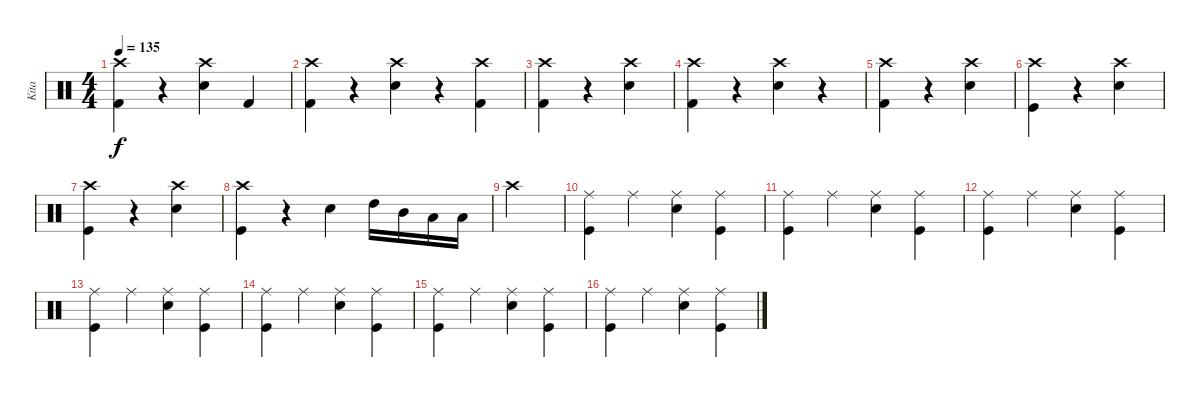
\track ("Kita" "Kita") {instrument percussion}
\staff {score}
\articulation defaults
\ts (4 4)
\tempo 135
\clef neutral
\ks c
("Kick (hit) 2" "Crash high (hit)").4{dy f} r.4 ("Snare (hit) 2" "Crash high (hit)").4 "Kick (hit) 2".4 |
("Kick (hit) 2" "Crash high (hit)").4 r.4 ("Snare (hit) 2" "Crash high (hit)").4 r.4 ("Kick (hit) 2" "Crash high (hit)").4 |
("Kick (hit) 2" "Crash high (hit)").4 r.4 ("Crash high (hit)" "Snare (hit) 2").4 |
("Kick (hit) 2" "Crash high (hit)").4 r.4 ("Crash high (hit)" "Snare (hit) 2").4 r.4 |
("Kick (hit) 2" "Crash high (hit)").4 r.4 ("Crash high (hit)" "Snare (hit) 2").4 |
("Crash high (hit)" "Kick (hit)").4 r.4 ("Crash high (hit)" "Snare (hit) 2").4 |
("Crash high (hit)" "Kick (hit)").4 r.4 ("Snare (hit) 2" "Crash high (hit)").4 |
("Crash high (hit)" "Kick (hit)").4 r.4 "Snare (hit) 2".4 "High Tom (hit)".16 "Mid Tom (hit)".16 "Low Tom (hit)".16 "Low Floor Tom (hit)".16 |
"Crash high (hit)".2 |
("Kick (hit)" "Ride (middle)").4 "Ride (middle)".4 ("Ride (middle)" "Snare (hit) 2").4 ("Kick (hit)" "Ride (middle)").4 |
("Kick (hit)" "Ride (middle)").4 "Ride (middle)".4 ("Ride (middle)" "Snare (hit) 2").4 ("Kick (hit)" "Ride (middle)").4 |
("Kick (hit)" "Ride (middle)").4 "Ride (middle)".4 ("Ride (middle)" "Snare (hit) 2").4 ("Kick (hit)" "Ride (middle)").4 |
("Kick (hit)" "Ride (middle)").4 "Ride (middle)".4 ("Ride (middle)" "Snare (hit) 2").4 ("Kick (hit)" "Ride (middle)").4 |
("Kick (hit)" "Ride (middle)").4 "Ride (middle)".4 ("Ride (middle)" "Snare (hit) 2").4 ("Kick (hit)" "Ride (middle)").4 |
("Kick (hit)" "Ride (middle)").4 "Ride (middle)".4 ("Ride (middle)" "Snare (hit) 2").4 ("Kick (hit)" "Ride (middle)").4 |
("Kick (hit)" "Ride (middle)").4 "Ride (middle)".4 ("Ride (middle)" "Snare (hit) 2").4 ("Kick (hit)" "Ride (middle)").4
